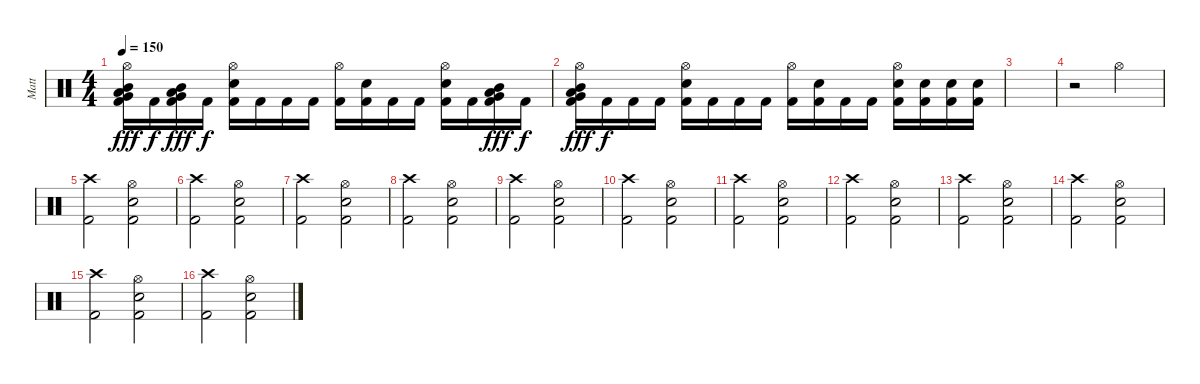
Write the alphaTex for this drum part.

\track ("Matt" "Matt") {instrument percussion}
\staff {score}
\articulation defaults
\ts (4 4)
\tempo 150
\clef neutral
\ks c
("Hi-Hat (open)" "Mid Tom (hit)" "Low Tom (hit)" "Very Low Tom (hit)" "Kick (hit) 2").16{dy fff} "Kick (hit) 2".16{dy f} ("Mid Tom (hit)" "Low Tom (hit)" "Very Low Tom (hit)" "Kick (hit) 2").16{dy fff} "Kick (hit) 2".16{dy f} ("Hi-Hat (open)" "Snare (hit) 2" "Kick (hit) 2").16 "Kick (hit) 2".16 "Kick (hit) 2".16 "Kick (hit) 2".16 ("Hi-Hat (open)" "Kick (hit) 2").16 ("Snare (hit) 2" "Kick (hit) 2").16 "Kick (hit) 2".16 "Kick (hit) 2".16 ("Hi-Hat (open)" "Snare (hit) 2" "Kick (hit) 2").16 "Kick (hit) 2".16 ("Mid Tom (hit)" "Low Tom (hit)" "Very Low Tom (hit)" "Kick (hit) 2").16{dy fff} "Kick (hit) 2".16{dy f} |
("Hi-Hat (open)" "Mid Tom (hit)" "Very Low Tom (hit)" "Low Tom (hit)" "Kick (hit) 2").16{dy fff} "Kick (hit) 2".16{dy f} "Kick (hit) 2".16 "Kick (hit) 2".16 ("Hi-Hat (open)" "Snare (hit) 2" "Kick (hit) 2").16 "Kick (hit) 2".16 "Kick (hit) 2".16 "Kick (hit) 2".16 ("Hi-Hat (open)" "Kick (hit) 2").16 ("Snare (hit) 2" "Kick (hit) 2").16 "Kick (hit) 2".16 "Kick (hit) 2".16 ("Hi-Hat (open)" "Electric Snare (hit)" "Kick (hit) 2").16 ("Electric Snare (hit)" "Kick (hit) 2").16 ("Electric Snare (hit)" "Kick (hit) 2").16 ("Electric Snare (hit)" "Kick (hit) 2").16 |
|
r.2 "Hi-Hat (open)".2 |
("Crash high (hit)" "Kick (hit) 2").2 ("Hi-Hat (open)" "Snare (hit) 2" "Kick (hit) 2").2 |
("Crash high (hit)" "Kick (hit) 2").2 ("Hi-Hat (open)" "Snare (hit) 2" "Kick (hit) 2").2 |
("Crash high (hit)" "Kick (hit) 2").2 ("Hi-Hat (open)" "Snare (hit) 2" "Kick (hit) 2").2 |
("Crash high (hit)" "Kick (hit) 2").2 ("Hi-Hat (open)" "Snare (hit) 2" "Kick (hit) 2").2 |
("Crash high (hit)" "Kick (hit) 2").2 ("Hi-Hat (open)" "Snare (hit) 2" "Kick (hit) 2").2 |
("Crash high (hit)" "Kick (hit) 2").2 ("Hi-Hat (open)" "Snare (hit) 2" "Kick (hit) 2").2 |
("Crash high (hit)" "Kick (hit) 2").2 ("Hi-Hat (open)" "Snare (hit) 2" "Kick (hit) 2").2 |
("Crash high (hit)" "Kick (hit) 2").2 ("Hi-Hat (open)" "Snare (hit) 2" "Kick (hit) 2").2 |
("Crash high (hit)" "Kick (hit) 2").2 ("Hi-Hat (open)" "Snare (hit) 2" "Kick (hit) 2").2 |
("Crash high (hit)" "Kick (hit) 2").2 ("Hi-Hat (open)" "Snare (hit) 2" "Kick (hit) 2").2 |
("Crash high (hit)" "Kick (hit) 2").2 ("Hi-Hat (open)" "Snare (hit) 2" "Kick (hit) 2").2 |
("Crash high (hit)" "Kick (hit) 2").2 ("Hi-Hat (open)" "Snare (hit) 2" "Kick (hit) 2").2
